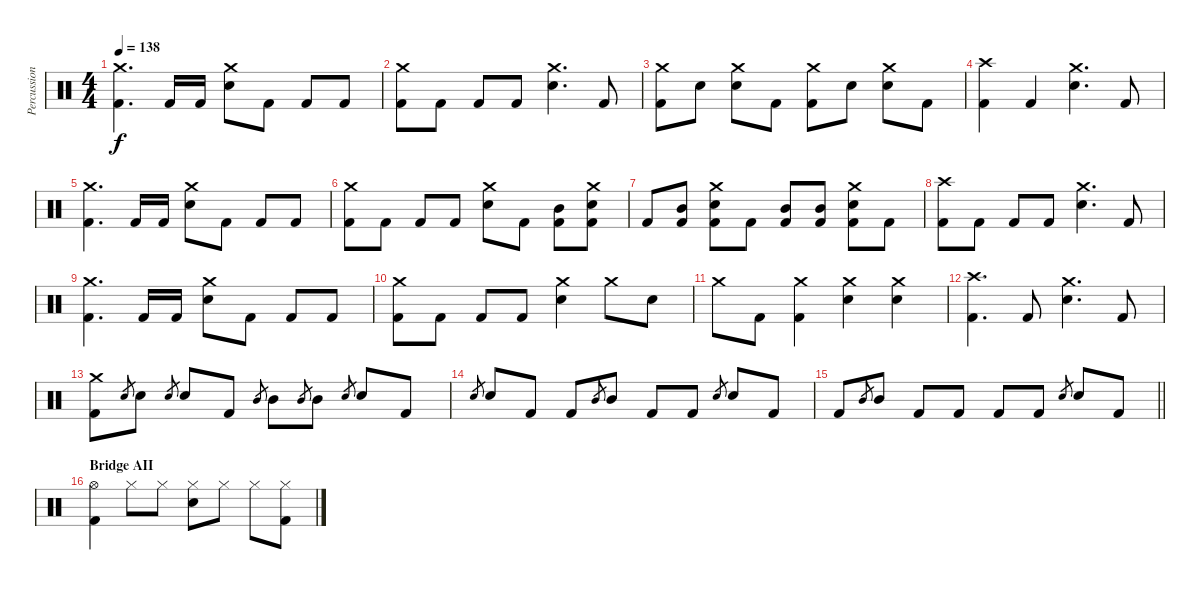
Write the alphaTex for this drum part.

\track ("Percussion" "Percussion") {instrument percussion}
\staff {score}
\articulation defaults
\ts (4 4)
\tempo 138
\clef neutral
\ks c
("Crash medium (hit)" "Kick (hit) 2").4{d dy f} "Kick (hit) 2".16 "Kick (hit) 2".16 ("Crash medium (hit)" "Electric Snare (hit)").8 "Kick (hit) 2".8 "Kick (hit) 2".8 "Kick (hit) 2".8 |
("Crash medium (hit)" "Kick (hit) 2").8 "Kick (hit) 2".8 "Kick (hit) 2".8 "Kick (hit) 2".8 ("Crash medium (hit)" "Electric Snare (hit)").4{d} "Kick (hit) 2".8 |
("Crash medium (hit)" "Kick (hit) 2").8 "Electric Snare (hit)".8 ("Crash medium (hit)" "Electric Snare (hit)").8 "Kick (hit) 2".8 ("Crash medium (hit)" "Kick (hit) 2").8 "Electric Snare (hit)".8 ("Crash medium (hit)" "Electric Snare (hit)").8 "Kick (hit) 2".8 |
("Crash high (hit)" "Kick (hit) 2").4 "Kick (hit) 2".4 ("Crash medium (hit)" "Electric Snare (hit)").4{d} "Kick (hit) 2".8 |
("Crash medium (hit)" "Kick (hit) 2").4{d} "Kick (hit) 2".16 "Kick (hit) 2".16 ("Crash medium (hit)" "Electric Snare (hit)").8 "Kick (hit) 2".8 "Kick (hit) 2".8 "Kick (hit) 2".8 |
("Crash medium (hit)" "Kick (hit) 2").8 "Kick (hit) 2".8 "Kick (hit) 2".8 "Kick (hit) 2".8 ("Crash medium (hit)" "Electric Snare (hit)").8 "Kick (hit) 2".8 ("Mid Tom (hit)" "Kick (hit) 2").8 ("Crash medium (hit)" "Electric Snare (hit)" "Kick (hit) 2").8 |
"Kick (hit) 2".8 ("Mid Tom (hit)" "Kick (hit) 2").8 ("Crash medium (hit)" "Electric Snare (hit)" "Kick (hit) 2").8 "Kick (hit) 2".8 ("Mid Tom (hit)" "Kick (hit) 2").8 ("Mid Tom (hit)" "Kick (hit) 2").8 ("Crash medium (hit)" "Electric Snare (hit)" "Kick (hit) 2").8 "Kick (hit) 2".8 |
("Crash high (hit)" "Kick (hit) 2").8 "Kick (hit) 2".8 "Kick (hit) 2".8 "Kick (hit) 2".8 ("Crash medium (hit)" "Electric Snare (hit)").4{d} "Kick (hit) 2".8 |
("Crash medium (hit)" "Kick (hit) 2").4{d} "Kick (hit) 2".16 "Kick (hit) 2".16 ("Crash medium (hit)" "Electric Snare (hit)").8 "Kick (hit) 2".8 "Kick (hit) 2".8 "Kick (hit) 2".8 |
("Crash medium (hit)" "Kick (hit) 2").8 "Kick (hit) 2".8 "Kick (hit) 2".8 "Kick (hit) 2".8 ("Crash medium (hit)" "Electric Snare (hit)").4 "Crash medium (hit)".8 "Electric Snare (hit)".8 |
"Crash medium (hit)".8 "Kick (hit) 2".8 ("Crash medium (hit)" "Kick (hit) 2").4 ("Crash medium (hit)" "Electric Snare (hit)").4 ("Crash medium (hit)" "Electric Snare (hit)").4 |
("Crash high (hit)" "Kick (hit) 2").4{d} "Kick (hit) 2".8 ("Crash medium (hit)" "Electric Snare (hit)").4{d} "Kick (hit) 2".8 |
("Crash medium (hit)" "Kick (hit) 2").8 "Electric Snare (hit)".8{gr} "Electric Snare (hit)".8 "Electric Snare (hit)".8{gr} "Electric Snare (hit)".8 "Kick (hit) 2".8 "Mid Tom (hit)".8{gr} "Mid Tom (hit)".8 "Mid Tom (hit)".8{gr} "Mid Tom (hit)".8 "Electric Snare (hit)".8{gr} "Electric Snare (hit)".8 "Kick (hit) 2".8 |
"Electric Snare (hit)".8{gr} "Electric Snare (hit)".8 "Kick (hit) 2".8 "Kick (hit) 2".8 "Mid Tom (hit)".8{gr} "Mid Tom (hit)".8 "Kick (hit) 2".8 "Kick (hit) 2".8 "Electric Snare (hit)".8{gr} "Electric Snare (hit)".8 "Kick (hit) 2".8 |
\barLineRight lightlight "Kick (hit) 2".8 "Mid Tom (hit)".8{gr} "Mid Tom (hit)".8 "Kick (hit) 2".8 "Kick (hit) 2".8 "Kick (hit) 2".8 "Kick (hit) 2".8 "Electric Snare (hit)".8{gr} "Electric Snare (hit)".8 "Kick (hit) 2".8
|
\section ("" "Bridge AII")
("Hi-Hat (open)" "Kick (hit) 2").4 "Hi-Hat (closed)".8 "Hi-Hat (closed)".8 ("Hi-Hat (closed)" "Electric Snare (hit)").8 "Hi-Hat (closed)".8 "Hi-Hat (closed)".8 ("Hi-Hat (closed)" "Kick (hit) 2").8
